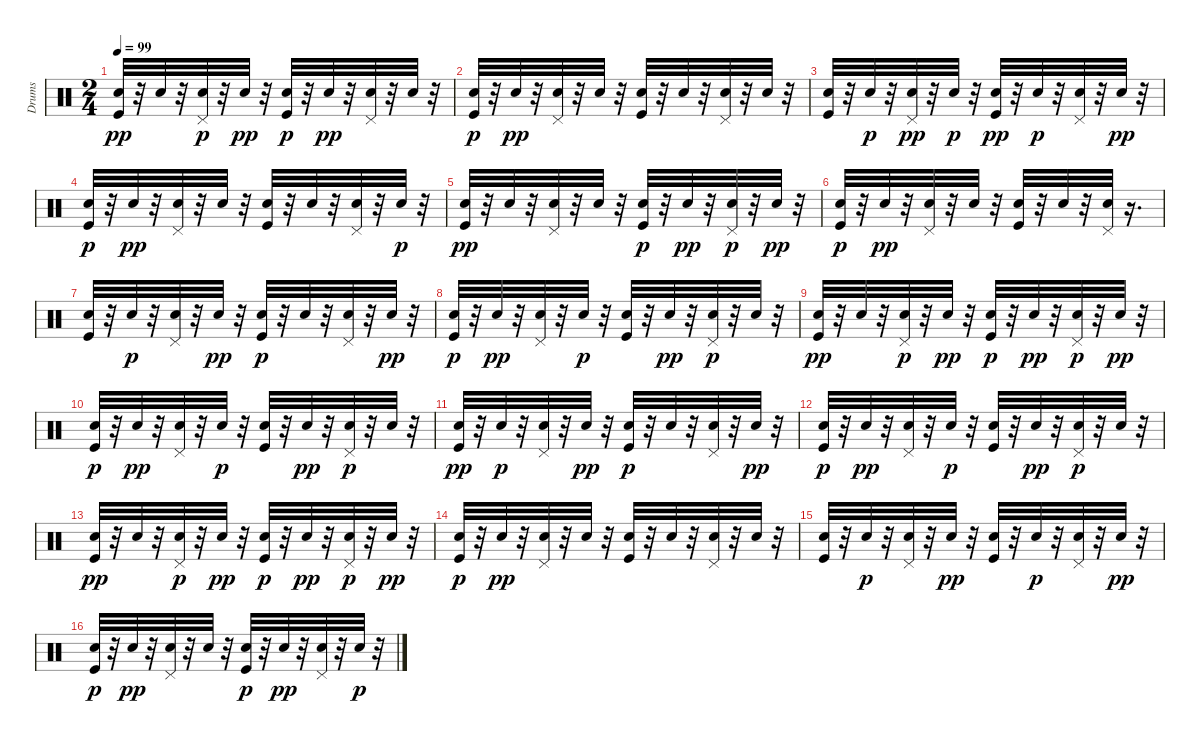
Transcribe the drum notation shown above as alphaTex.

\track ("Drums" "Drums") {instrument percussion}
\staff {score}
\articulation defaults
\ts (2 4)
\tempo 99
\clef neutral
\ks c
("Kick (hit)" "Hand Clap (hit)").32{dy pp} r.32 "Snare (hit) 2".32 r.32 ("Pedal Hi-Hat (hit)" "Snare (hit) 2").32{dy p} r.32 "Hand Clap (hit)".32{dy pp} r.32 ("Hand Clap (hit)" "Kick (hit)").32{dy p} r.32 "Snare (hit) 2".32{dy pp} r.32 ("Pedal Hi-Hat (hit)" "Hand Clap (hit)").32 r.32 "Snare (hit) 2".32 r.32 |
("Hand Clap (hit)" "Kick (hit)").32{dy p} r.32 "Snare (hit) 2".32{dy pp} r.32 ("Pedal Hi-Hat (hit)" "Snare (hit) 2").32 r.32 "Snare (hit) 2".32 r.32 ("Kick (hit)" "Hand Clap (hit)").32 r.32 "Snare (hit) 2".32 r.32 ("Hand Clap (hit)" "Pedal Hi-Hat (hit)").32 r.32 "Snare (hit) 2".32 r.32 |
("Kick (hit)" "Hand Clap (hit)").32 r.32 "Snare (hit) 2".32{dy p} r.32 ("Pedal Hi-Hat (hit)" "Snare (hit) 2").32{dy pp} r.32 "Hand Clap (hit)".32{dy p} r.32 ("Kick (hit)" "Snare (hit) 2").32{dy pp} r.32 "Snare (hit) 2".32{dy p} r.32 ("Pedal Hi-Hat (hit)" "Snare (hit) 2").32 r.32 "Snare (hit) 2".32{dy pp} r.32 |
("Hand Clap (hit)" "Kick (hit)").32{dy p} r.32 "Snare (hit) 2".32{dy pp} r.32 ("Pedal Hi-Hat (hit)" "Snare (hit) 2").32 r.32 "Hand Clap (hit)".32 r.32 ("Kick (hit)" "Hand Clap (hit)").32 r.32 "Snare (hit) 2".32 r.32 ("Pedal Hi-Hat (hit)" "Hand Clap (hit)").32 r.32 "Snare (hit) 2".32{dy p} r.32 |
("Kick (hit)" "Hand Clap (hit)").32{dy pp} r.32 "Snare (hit) 2".32 r.32 ("Pedal Hi-Hat (hit)" "Snare (hit) 2").32 r.32 "Hand Clap (hit)".32 r.32 ("Kick (hit)" "Snare (hit) 2").32{dy p} r.32 "Snare (hit) 2".32{dy pp} r.32 ("Pedal Hi-Hat (hit)" "Snare (hit) 2").32{dy p} r.32 "Snare (hit) 2".32{dy pp} r.32 |
("Hand Clap (hit)" "Kick (hit)").32{dy p} r.32 "Snare (hit) 2".32{dy pp} r.32 ("Pedal Hi-Hat (hit)" "Snare (hit) 2").32 r.32 "Hand Clap (hit)".32 r.32 ("Kick (hit)" "Hand Clap (hit)").32 r.32 "Snare (hit) 2".32 r.32 ("Hand Clap (hit)" "Pedal Hi-Hat (hit)").32 r.16{d} |
("Kick (hit)" "Hand Clap (hit)").32 r.32 "Snare (hit) 2".32{dy p} r.32 ("Pedal Hi-Hat (hit)" "Snare (hit) 2").32 r.32 "Snare (hit) 2".32{dy pp} r.32 ("Hand Clap (hit)" "Kick (hit)").32{dy p} r.32 "Snare (hit) 2".32 r.32 ("Pedal Hi-Hat (hit)" "Snare (hit) 2").32 r.32 "Hand Clap (hit)".32{dy pp} r.32 |
("Hand Clap (hit)" "Kick (hit)").32{dy p} r.32 "Snare (hit) 2".32{dy pp} r.32 ("Pedal Hi-Hat (hit)" "Snare (hit) 2").32 r.32 "Snare (hit) 2".32{dy p} r.32 ("Hand Clap (hit)" "Kick (hit)").32 r.32 "Hand Clap (hit)".32{dy pp} r.32 ("Pedal Hi-Hat (hit)" "Snare (hit) 2").32{dy p} r.32 "Snare (hit) 2".32 r.32 |
("Kick (hit)" "Hand Clap (hit)").32{dy pp} r.32 "Snare (hit) 2".32 r.32 ("Pedal Hi-Hat (hit)" "Snare (hit) 2").32{dy p} r.32 "Snare (hit) 2".32{dy pp} r.32 ("Hand Clap (hit)" "Kick (hit)").32{dy p} r.32 "Snare (hit) 2".32{dy pp} r.32 ("Pedal Hi-Hat (hit)" "Snare (hit) 2").32{dy p} r.32 "Snare (hit) 2".32{dy pp} r.32 |
("Hand Clap (hit)" "Kick (hit)").32{dy p} r.32 "Snare (hit) 2".32{dy pp} r.32 ("Pedal Hi-Hat (hit)" "Snare (hit) 2").32 r.32 "Snare (hit) 2".32{dy p} r.32 ("Hand Clap (hit)" "Kick (hit)").32 r.32 "Hand Clap (hit)".32{dy pp} r.32 ("Pedal Hi-Hat (hit)" "Snare (hit) 2").32{dy p} r.32 "Snare (hit) 2".32 r.32 |
("Kick (hit)" "Hand Clap (hit)").32{dy pp} r.32 "Snare (hit) 2".32{dy p} r.32 ("Pedal Hi-Hat (hit)" "Snare (hit) 2").32 r.32 "Snare (hit) 2".32{dy pp} r.32 ("Hand Clap (hit)" "Kick (hit)").32{dy p} r.32 "Snare (hit) 2".32 r.32 ("Pedal Hi-Hat (hit)" "Snare (hit) 2").32 r.32 "Hand Clap (hit)".32{dy pp} r.32 |
("Hand Clap (hit)" "Kick (hit)").32{dy p} r.32 "Snare (hit) 2".32{dy pp} r.32 ("Pedal Hi-Hat (hit)" "Snare (hit) 2").32 r.32 "Snare (hit) 2".32{dy p} r.32 ("Hand Clap (hit)" "Kick (hit)").32 r.32 "Hand Clap (hit)".32{dy pp} r.32 ("Pedal Hi-Hat (hit)" "Snare (hit) 2").32{dy p} r.32 "Snare (hit) 2".32 r.32 |
("Kick (hit)" "Hand Clap (hit)").32{dy pp} r.32 "Snare (hit) 2".32 r.32 ("Pedal Hi-Hat (hit)" "Snare (hit) 2").32{dy p} r.32 "Snare (hit) 2".32{dy pp} r.32 ("Hand Clap (hit)" "Kick (hit)").32{dy p} r.32 "Snare (hit) 2".32{dy pp} r.32 ("Pedal Hi-Hat (hit)" "Snare (hit) 2").32{dy p} r.32 "Snare (hit) 2".32{dy pp} r.32 |
("Hand Clap (hit)" "Kick (hit)").32{dy p} r.32 "Snare (hit) 2".32{dy pp} r.32 ("Pedal Hi-Hat (hit)" "Snare (hit) 2").32 r.32 "Hand Clap (hit)".32 r.32 ("Kick (hit)" "Hand Clap (hit)").32 r.32 "Snare (hit) 2".32 r.32 ("Hand Clap (hit)" "Pedal Hi-Hat (hit)").32 r.32 "Hand Clap (hit)".32 r.32 |
("Kick (hit)" "Hand Clap (hit)").32 r.32 "Snare (hit) 2".32{dy p} r.32 ("Pedal Hi-Hat (hit)" "Snare (hit) 2").32 r.32 "Hand Clap (hit)".32{dy pp} r.32 ("Kick (hit)" "Snare (hit) 2").32 r.32 "Snare (hit) 2".32{dy p} r.32 ("Pedal Hi-Hat (hit)" "Snare (hit) 2").32 r.32 "Hand Clap (hit)".32{dy pp} r.32 |
("Hand Clap (hit)" "Kick (hit)").32{dy p} r.32 "Snare (hit) 2".32{dy pp} r.32 ("Pedal Hi-Hat (hit)" "Snare (hit) 2").32 r.32 "Hand Clap (hit)".32 r.32 ("Hand Clap (hit)" "Kick (hit)").32{dy p} r.32 "Snare (hit) 2".32{dy pp} r.32 ("Pedal Hi-Hat (hit)" "Hand Clap (hit)").32 r.32 "Snare (hit) 2".32{dy p} r.32
